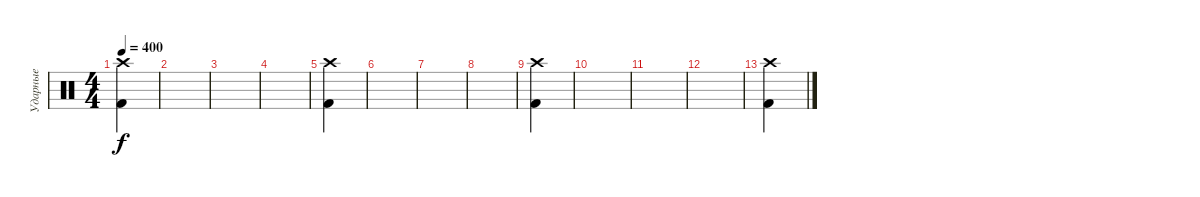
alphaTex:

\track ("Ударные" "Ударные") {instrument percussion}
\staff {score}
\articulation defaults
\ts (4 4)
\tempo 400
\clef neutral
\ks c
("Kick (hit) 2" "Crash high (hit)").4{dy f} |
|
|
|
("Kick (hit) 2" "Crash high (hit)").4 |
|
|
|
("Kick (hit) 2" "Crash high (hit)").4 |
|
|
|
("Kick (hit) 2" "Crash high (hit)").4
